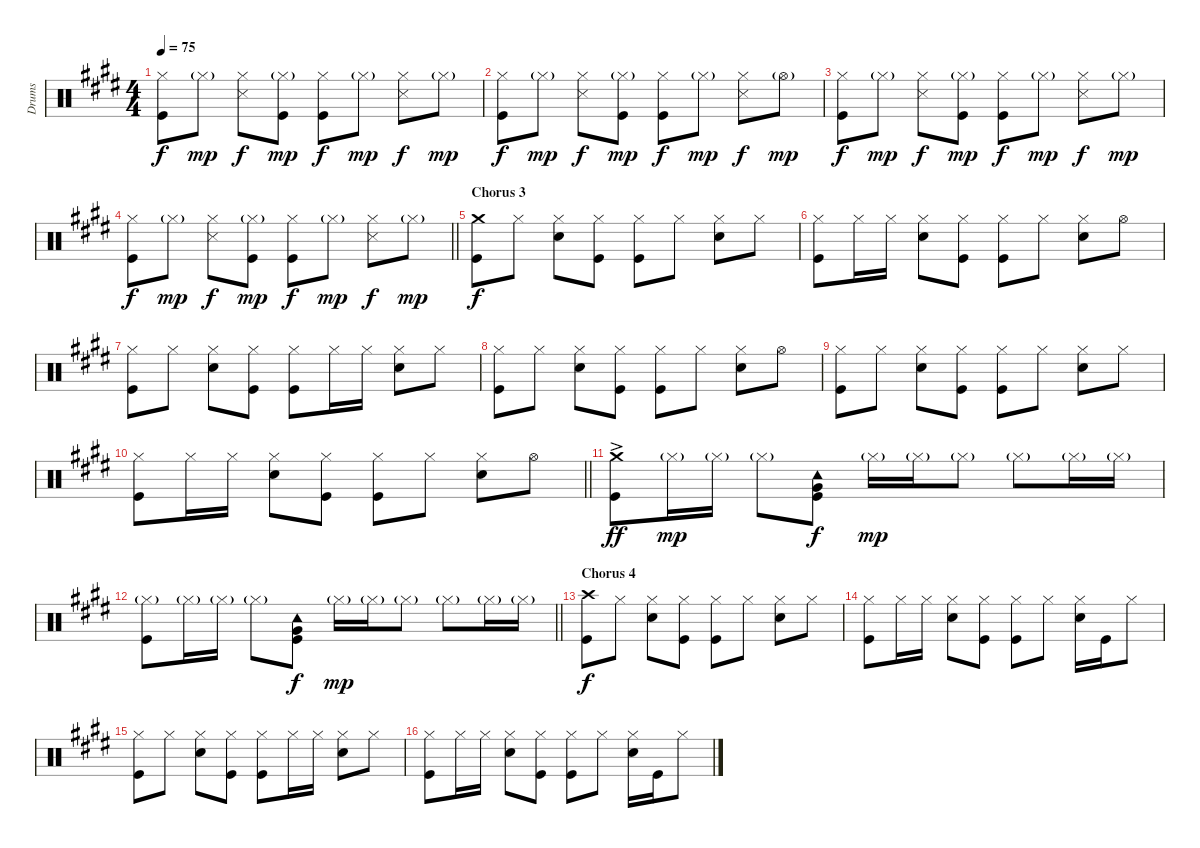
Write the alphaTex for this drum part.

\track ("Drums" "Drums") {instrument percussion}
\staff {score}
\articulation defaults
\ts (4 4)
\tempo 75
\clef neutral
\ks e
("Hi-Hat (closed)" "Kick (hit)").8{dy f} "Hi-Hat (closed)"{g}.8{dy mp} ("Hi-Hat (closed)" "Snare (side stick) 3").8{dy f} ("Hi-Hat (closed)"{g} "Kick (hit)").8{dy mp} ("Hi-Hat (closed)" "Kick (hit)").8{dy f} "Hi-Hat (closed)"{g}.8{dy mp} ("Hi-Hat (closed)" "Snare (side stick) 3").8{dy f} "Hi-Hat (closed)"{g}.8{dy mp} |
("Hi-Hat (closed)" "Kick (hit)").8{dy f} "Hi-Hat (closed)"{g}.8{dy mp} ("Hi-Hat (closed)" "Snare (side stick) 3").8{dy f} ("Hi-Hat (closed)"{g} "Kick (hit)").8{dy mp} ("Hi-Hat (closed)" "Kick (hit)").8{dy f} "Hi-Hat (closed)"{g}.8{dy mp} ("Hi-Hat (closed)" "Snare (side stick) 3").8{dy f} "Hi-Hat (open)"{g}.8{dy mp} |
("Hi-Hat (closed)" "Kick (hit)").8{dy f} "Hi-Hat (closed)"{g}.8{dy mp} ("Hi-Hat (closed)" "Snare (side stick) 3").8{dy f} ("Hi-Hat (closed)"{g} "Kick (hit)").8{dy mp} ("Hi-Hat (closed)" "Kick (hit)").8{dy f} "Hi-Hat (closed)"{g}.8{dy mp} ("Hi-Hat (closed)" "Snare (side stick) 3").8{dy f} "Hi-Hat (closed)"{g}.8{dy mp} |
\barLineRight lightlight
("Hi-Hat (closed)" "Kick (hit)").8{dy f} "Hi-Hat (closed)"{g}.8{dy mp} ("Hi-Hat (closed)" "Snare (side stick) 3").8{dy f} ("Hi-Hat (closed)"{g} "Kick (hit)").8{dy mp} ("Hi-Hat (closed)" "Kick (hit)").8{dy f} "Hi-Hat (closed)"{g}.8{dy mp} ("Hi-Hat (closed)" "Snare (side stick) 3").8{dy f} "Hi-Hat (closed)"{g}.8{dy mp} |
\section ("" "Chorus 3")
("Crash medium (hit)" "Kick (hit)").8{dy f} "Hi-Hat (closed)".8 ("Hi-Hat (closed)" "Electric Snare (hit)").8 ("Hi-Hat (closed)" "Kick (hit)").8 ("Hi-Hat (closed)" "Kick (hit)").8 "Hi-Hat (closed)".8 ("Hi-Hat (closed)" "Electric Snare (hit)").8 "Hi-Hat (closed)".8 |
("Hi-Hat (closed)" "Kick (hit)").8 "Hi-Hat (closed)".16 "Hi-Hat (closed)".16 ("Hi-Hat (closed)" "Electric Snare (hit)").8 ("Hi-Hat (closed)" "Kick (hit)").8 ("Hi-Hat (closed)" "Kick (hit)").8 "Hi-Hat (closed)".8 ("Hi-Hat (closed)" "Electric Snare (hit)").8 "Hi-Hat (open)".8 |
("Hi-Hat (closed)" "Kick (hit)").8 "Hi-Hat (closed)".8 ("Hi-Hat (closed)" "Electric Snare (hit)").8 ("Hi-Hat (closed)" "Kick (hit)").8 ("Hi-Hat (closed)" "Kick (hit)").8 "Hi-Hat (closed)".16 "Hi-Hat (closed)".16 ("Hi-Hat (closed)" "Electric Snare (hit)").8 "Hi-Hat (closed)".8 |
("Hi-Hat (closed)" "Kick (hit)").8 "Hi-Hat (closed)".8 ("Hi-Hat (closed)" "Electric Snare (hit)").8 ("Hi-Hat (closed)" "Kick (hit)").8 ("Hi-Hat (closed)" "Kick (hit)").8 "Hi-Hat (closed)".8 ("Hi-Hat (closed)" "Electric Snare (hit)").8 "Hi-Hat (open)".8 |
("Hi-Hat (closed)" "Kick (hit)").8 "Hi-Hat (closed)".8 ("Hi-Hat (closed)" "Electric Snare (hit)").8 ("Hi-Hat (closed)" "Kick (hit)").8 ("Hi-Hat (closed)" "Kick (hit)").8 "Hi-Hat (closed)".8 ("Hi-Hat (closed)" "Electric Snare (hit)").8 "Hi-Hat (closed)".8 |
\barLineRight lightlight
("Hi-Hat (closed)" "Kick (hit)").8 "Hi-Hat (closed)".16 "Hi-Hat (closed)".16 ("Hi-Hat (closed)" "Electric Snare (hit)").8 ("Hi-Hat (closed)" "Kick (hit)").8 ("Hi-Hat (closed)" "Kick (hit)").8 "Hi-Hat (closed)".8 ("Hi-Hat (closed)" "Electric Snare (hit)").8 "Hi-Hat (open)".8 |
("Crash medium (hit)"{ac} "Kick (hit)").8{dy ff} "Hi-Hat (closed)"{g}.16{dy mp} "Hi-Hat (closed)"{g}.16 "Hi-Hat (closed)"{g}.8 ("Tambourine (hit)" "Very Low Tom (hit)" "Kick (hit)").8{dy f} "Hi-Hat (closed)"{g}.16{dy mp} "Hi-Hat (closed)"{g}.16 "Hi-Hat (closed)"{g}.8 "Hi-Hat (closed)"{g}.8 "Hi-Hat (closed)"{g}.16 "Hi-Hat (closed)"{g}.16 |
\barLineRight lightlight
("Hi-Hat (closed)"{g} "Kick (hit)").8 "Hi-Hat (closed)"{g}.16 "Hi-Hat (closed)"{g}.16 "Hi-Hat (closed)"{g}.8 ("Tambourine (hit)" "Very Low Tom (hit)" "Kick (hit)").8{dy f} "Hi-Hat (closed)"{g}.16{dy mp} "Hi-Hat (closed)"{g}.16 "Hi-Hat (closed)"{g}.8 "Hi-Hat (closed)"{g}.8 "Hi-Hat (closed)"{g}.16 "Hi-Hat (closed)"{g}.16 |
\section ("" "Chorus 4")
("Crash high (hit)" "Kick (hit)").8{dy f} "Hi-Hat (closed)".8 ("Hi-Hat (closed)" "Electric Snare (hit)").8 ("Hi-Hat (closed)" "Kick (hit)").8 ("Hi-Hat (closed)" "Kick (hit)").8 "Hi-Hat (closed)".8 ("Hi-Hat (closed)" "Electric Snare (hit)").8 "Hi-Hat (closed)".8 |
("Hi-Hat (closed)" "Kick (hit)").8 "Hi-Hat (closed)".16 "Hi-Hat (closed)".16 ("Hi-Hat (closed)" "Electric Snare (hit)").8 ("Hi-Hat (closed)" "Kick (hit)").8 ("Hi-Hat (closed)" "Kick (hit)").8 "Hi-Hat (closed)".8 ("Hi-Hat (closed)" "Electric Snare (hit)").16 "Kick (hit)".16 "Hi-Hat (closed)".8 |
("Hi-Hat (closed)" "Kick (hit)").8 "Hi-Hat (closed)".8 ("Hi-Hat (closed)" "Electric Snare (hit)").8 ("Hi-Hat (closed)" "Kick (hit)").8 ("Hi-Hat (closed)" "Kick (hit)").8 "Hi-Hat (closed)".16 "Hi-Hat (closed)".16 ("Hi-Hat (closed)" "Electric Snare (hit)").8 "Hi-Hat (closed)".8 |
("Hi-Hat (closed)" "Kick (hit)").8 "Hi-Hat (closed)".16 "Hi-Hat (closed)".16 ("Hi-Hat (closed)" "Electric Snare (hit)").8 ("Hi-Hat (closed)" "Kick (hit)").8 ("Hi-Hat (closed)" "Kick (hit)").8 "Hi-Hat (closed)".8 ("Hi-Hat (closed)" "Electric Snare (hit)").16 "Kick (hit)".16 "Hi-Hat (closed)".8
